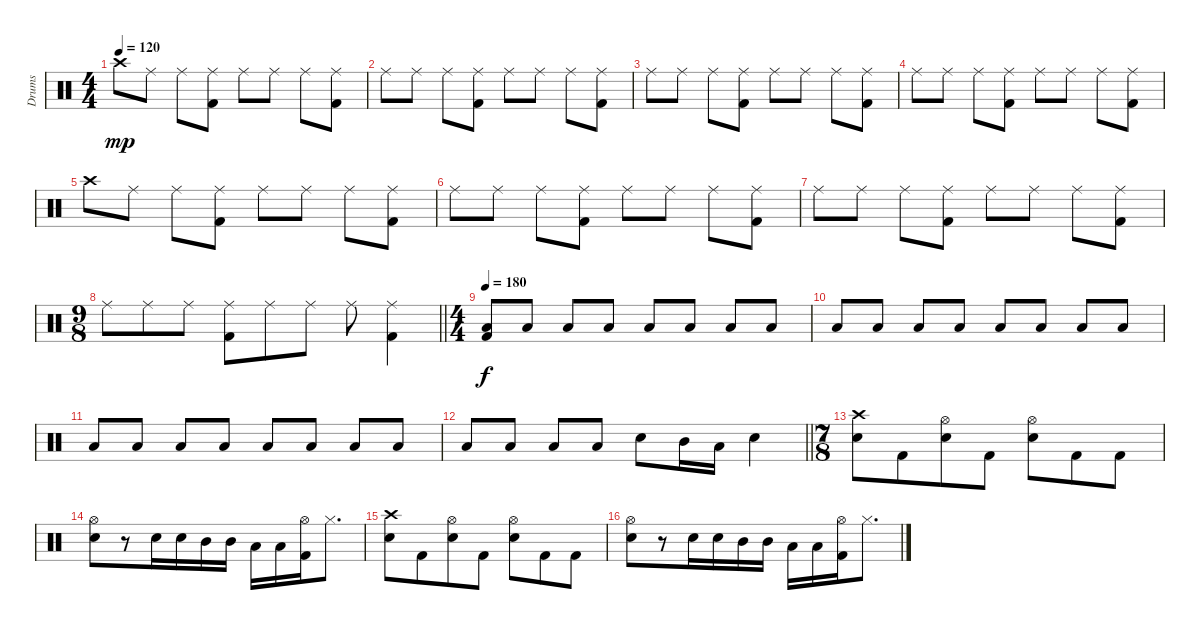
\track ("Drums" "Drums") {instrument percussion}
\staff {score}
\articulation defaults
\ts (4 4)
\tempo 120
\clef neutral
\ks c "Crash high (hit)".8{dy mp volume 8} "Ride (middle)".8 "Ride (middle)".8
("Ride (middle)" "Kick (hit) 2").8 "Ride (middle)".8 "Ride (middle)".8 "Ride (middle)".8 ("Ride (middle)" "Kick (hit) 2").8 |
"Ride (middle)".8 "Ride (middle)".8 "Ride (middle)".8 ("Ride (middle)" "Kick (hit) 2").8 "Ride (middle)".8 "Ride (middle)".8 "Ride (middle)".8 ("Ride (middle)" "Kick (hit) 2").8 |
"Ride (middle)".8 "Ride (middle)".8 "Ride (middle)".8 ("Ride (middle)" "Kick (hit) 2").8 "Ride (middle)".8 "Ride (middle)".8 "Ride (middle)".8 ("Ride (middle)" "Kick (hit) 2").8 |
"Ride (middle)".8 "Ride (middle)".8 "Ride (middle)".8 ("Ride (middle)" "Kick (hit) 2").8 "Ride (middle)".8 "Ride (middle)".8 "Ride (middle)".8 ("Ride (middle)" "Kick (hit) 2").8 |
"Crash high (hit)".8 "Ride (middle)".8 "Ride (middle)".8 ("Ride (middle)" "Kick (hit) 2").8 "Ride (middle)".8 "Ride (middle)".8 "Ride (middle)".8 ("Ride (middle)" "Kick (hit) 2").8 |
"Ride (middle)".8 "Ride (middle)".8 "Ride (middle)".8 ("Ride (middle)" "Kick (hit) 2").8 "Ride (middle)".8 "Ride (middle)".8 "Ride (middle)".8 ("Ride (middle)" "Kick (hit) 2").8 |
"Ride (middle)".8 "Ride (middle)".8 "Ride (middle)".8 ("Ride (middle)" "Kick (hit) 2").8 "Ride (middle)".8 "Ride (middle)".8 "Ride (middle)".8 ("Ride (middle)" "Kick (hit) 2").8 |
\ts (9 8)
\barLineRight lightlight "Ride (middle)".8 "Ride (middle)".8 "Ride (middle)".8
("Ride (middle)" "Kick (hit) 2").8 "Ride (middle)".8 "Ride (middle)".8 "Ride (middle)".8 ("Ride (middle)" "Kick (hit) 2").4 |
\ts (4 4)
\tempo 180
("Low Floor Tom (hit)" "Kick (hit) 2").8{dy f volume 12} "Low Floor Tom (hit)".8{volume 8} "Low Floor Tom (hit)".8{volume 12} "Low Floor Tom (hit)".8 "Low Floor Tom (hit)".8 "Low Floor Tom (hit)".8 "Low Floor Tom (hit)".8 "Low Floor Tom (hit)".8 |
"Low Floor Tom (hit)".8 "Low Floor Tom (hit)".8 "Low Floor Tom (hit)".8 "Low Floor Tom (hit)".8 "Low Floor Tom (hit)".8 "Low Floor Tom (hit)".8 "Low Floor Tom (hit)".8 "Low Floor Tom (hit)".8 |
"Low Floor Tom (hit)".8 "Low Floor Tom (hit)".8 "Low Floor Tom (hit)".8 "Low Floor Tom (hit)".8 "Low Floor Tom (hit)".8 "Low Floor Tom (hit)".8 "Low Floor Tom (hit)".8 "Low Floor Tom (hit)".8 |
\barLineRight lightlight "Low Floor Tom (hit)".8 "Low Floor Tom (hit)".8 "Low Floor Tom (hit)".8 "Low Floor Tom (hit)".8 "Snare (hit) 2".8 "Mid Tom (hit)".16 "Low Tom (hit)".16 "Snare (hit) 2".4
|
\ts (7 8)
("Crash high (hit)" "Snare (hit) 2").8 "Kick (hit) 2".8 ("Hi-Hat (open)" "Snare (hit) 2").8 "Kick (hit) 2".8 ("Hi-Hat (open)" "Snare (hit) 2").8 "Kick (hit) 2".8 "Kick (hit) 2".8 |
("Hi-Hat (open)" "Snare (hit) 2").8 r.8 "Snare (hit) 2".16 "Snare (hit) 2".16 "Mid Tom (hit)".16 "Mid Tom (hit)".16 "Low Tom (hit)".16 "Low Tom (hit)".16 ("Hi-Hat (open)" "Kick (hit) 2").16 "Hi-Hat (closed)".8{d} |
("Crash high (hit)" "Snare (hit) 2").8 "Kick (hit) 2".8 ("Hi-Hat (open)" "Snare (hit) 2").8 "Kick (hit) 2".8 ("Hi-Hat (open)" "Snare (hit) 2").8 "Kick (hit) 2".8 "Kick (hit) 2".8 |
("Hi-Hat (open)" "Snare (hit) 2").8 r.8 "Snare (hit) 2".16 "Snare (hit) 2".16 "Mid Tom (hit)".16 "Mid Tom (hit)".16 "Low Tom (hit)".16 "Low Tom (hit)".16 ("Hi-Hat (open)" "Kick (hit) 2").16 "Hi-Hat (closed)".8{d}
